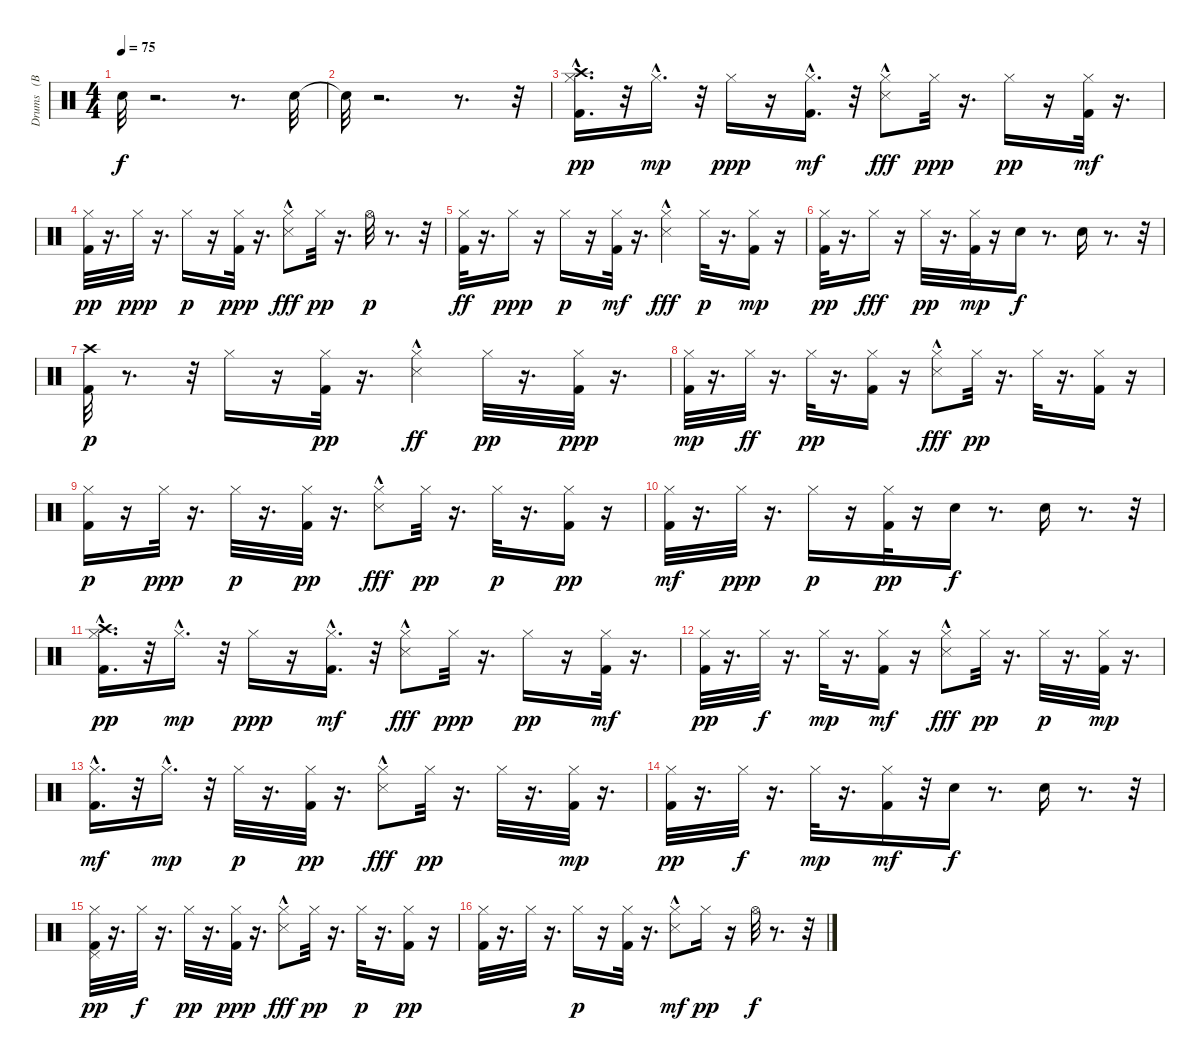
\track ("Drums   (BB)" "Drums   (B") {instrument percussion}
\staff {score}
\articulation defaults
\ts (4 4)
\tempo 75
\clef neutral
\ks c "Snare (hit)"{t}.32{dy f}
r.2{d} r.8{d} "Snare (hit) 2".32 |
"Snare (hit)"{t}.32 r.2{d} r.8{d} r.32 |
("Crash high (hit)"{hac} "Kick (hit) 2"{hac} "Hi-Hat (closed)").16{d dy pp} r.32 "Hi-Hat (closed)"{hac}.16{d dy mp} r.32 "Hi-Hat (closed)".16{dy ppp} r.16 ("Hi-Hat (closed)"{hac} "Kick (hit) 2").16{d dy mf} r.32 ("Snare (side stick) 3"{hac} "Hi-Hat (closed)").8{dy fff} "Hi-Hat (closed)".32{dy ppp} r.16{d} "Hi-Hat (closed)".16{dy pp} r.16 ("Hi-Hat (closed)" "Kick (hit) 2").32{dy mf} r.16{d} |
("Kick (hit) 2" "Hi-Hat (closed)").32{dy pp} r.16{d} "Hi-Hat (closed)".32{dy ppp} r.16{d} "Hi-Hat (closed)".16{dy p} r.16 ("Kick (hit) 2" "Hi-Hat (closed)").32{dy ppp} r.16{d} ("Snare (side stick) 3"{hac} "Hi-Hat (closed)").8{dy fff} "Hi-Hat (closed)".32{dy pp} r.16{d} "Hi-Hat (open)".32{dy p} r.8{d} r.32 |
("Hi-Hat (closed)" "Kick (hit) 2").32{dy ff} r.16{d} "Hi-Hat (closed)".16{dy ppp} r.16 "Hi-Hat (closed)".16{dy p} r.16 ("Hi-Hat (closed)" "Kick (hit) 2").32{dy mf} r.16{d} ("Snare (side stick) 3"{hac} "Hi-Hat (closed)").4{dy fff} "Hi-Hat (closed)".32{dy p} r.16{d} ("Hi-Hat (closed)" "Kick (hit) 2").16{dy mp} r.16 |
("Kick (hit) 2" "Hi-Hat (closed)").32{dy pp} r.16{d} "Hi-Hat (closed)".16{dy fff} r.16 "Hi-Hat (closed)".32{dy pp} r.16{d} ("Hi-Hat (closed)" "Kick (hit) 2").32{dy mp} r.16 "Snare (hit) 2".16{dy f} r.8{d} "Snare (hit) 2".16 r.8{d} r.32 |
("Kick (hit) 2" "Crash high (hit)").32{dy p} r.8{d} r.32 "Hi-Hat (closed)".16 r.16 ("Kick (hit) 2" "Hi-Hat (closed)").32{dy pp} r.16{d} ("Snare (side stick) 3"{hac} "Hi-Hat (closed)").4{dy ff} "Hi-Hat (closed)".32{dy pp} r.16{d} ("Kick (hit) 2" "Hi-Hat (closed)").32{dy ppp} r.16{d} |
("Hi-Hat (closed)" "Kick (hit) 2").32{dy mp} r.16{d} "Hi-Hat (closed)".32{dy ff} r.16{d} "Hi-Hat (closed)".32{dy pp} r.16{d} ("Kick (hit) 2" "Hi-Hat (closed)").16 r.16 ("Snare (side stick) 3"{hac} "Hi-Hat (closed)").8{dy fff} "Hi-Hat (closed)".32{dy pp} r.16{d} "Hi-Hat (closed)".32 r.16{d} ("Kick (hit) 2" "Hi-Hat (closed)").16 r.16 |
("Kick (hit) 2" "Hi-Hat (closed)").16{dy p} r.16 "Hi-Hat (closed)".32{dy ppp} r.16{d} "Hi-Hat (closed)".32{dy p} r.16{d} ("Kick (hit) 2" "Hi-Hat (closed)").32{dy pp} r.16{d} ("Snare (side stick) 3"{hac} "Hi-Hat (closed)").8{dy fff} "Hi-Hat (closed)".32{dy pp} r.16{d} "Hi-Hat (closed)".32{dy p} r.16{d} ("Kick (hit) 2" "Hi-Hat (closed)").16{dy pp} r.16 |
("Hi-Hat (closed)" "Kick (hit) 2").32{dy mf} r.16{d} "Hi-Hat (closed)".32{dy ppp} r.16{d} "Hi-Hat (closed)".16{dy p} r.16 ("Kick (hit) 2" "Hi-Hat (closed)").32{dy pp} r.16 "Snare (hit) 2".16{dy f} r.8{d} "Snare (hit) 2".16 r.8{d} r.32 |
("Crash high (hit)"{hac} "Kick (hit) 2"{hac} "Hi-Hat (closed)").16{d dy pp} r.32 "Hi-Hat (closed)"{hac}.16{d dy mp} r.32 "Hi-Hat (closed)".16{dy ppp} r.16 ("Hi-Hat (closed)"{hac} "Kick (hit) 2").16{d dy mf} r.32 ("Snare (side stick) 3"{hac} "Hi-Hat (closed)").8{dy fff} "Hi-Hat (closed)".32{dy ppp} r.16{d} "Hi-Hat (closed)".16{dy pp} r.16 ("Hi-Hat (closed)" "Kick (hit) 2").32{dy mf} r.16{d} |
("Hi-Hat (closed)" "Kick (hit) 2").32{dy pp} r.16{d} "Hi-Hat (closed)".32{dy f} r.16{d} "Hi-Hat (closed)".32{dy mp} r.16{d} ("Hi-Hat (closed)" "Kick (hit) 2").16{dy mf} r.16 ("Snare (side stick) 3"{hac} "Hi-Hat (closed)").8{dy fff} "Hi-Hat (closed)".32{dy pp} r.16{d} "Hi-Hat (closed)".32{dy p} r.16{d} ("Hi-Hat (closed)" "Kick (hit) 2").32{dy mp} r.16{d} |
("Hi-Hat (closed)"{hac} "Kick (hit) 2").16{d dy mf} r.32 "Hi-Hat (closed)"{hac}.16{d dy mp} r.32 "Hi-Hat (closed)".32{dy p} r.16{d} ("Kick (hit) 2" "Hi-Hat (closed)").32{dy pp} r.16{d} ("Snare (side stick) 3"{hac} "Hi-Hat (closed)").8{dy fff} "Hi-Hat (closed)".32{dy pp} r.16{d} "Hi-Hat (closed)".32 r.16{d} ("Hi-Hat (closed)" "Kick (hit) 2").32{dy mp} r.16{d} |
("Hi-Hat (closed)" "Kick (hit) 2").32{dy pp} r.16{d} "Hi-Hat (closed)".32{dy f} r.16{d} "Hi-Hat (closed)".32{dy mp} r.16{d} ("Hi-Hat (closed)" "Kick (hit) 2").16{dy mf} r.32 "Snare (hit) 2".16{dy f} r.8{d} "Snare (hit) 2".16 r.8{d} r.32 |
("Pedal Hi-Hat (hit)" "Kick (hit) 2" "Hi-Hat (closed)").32{dy pp} r.16{d} "Hi-Hat (closed)".32{dy f} r.16{d} "Hi-Hat (closed)".32{dy pp} r.16{d} ("Kick (hit) 2" "Hi-Hat (closed)").32{dy ppp} r.16{d} ("Snare (side stick) 3"{hac} "Hi-Hat (closed)").8{dy fff} "Hi-Hat (closed)".32{dy pp} r.16{d} "Hi-Hat (closed)".32{dy p} r.16{d} ("Kick (hit) 2" "Hi-Hat (closed)").16{dy pp} r.16 |
("Kick (hit) 2" "Hi-Hat (closed)").32 r.16{d} "Hi-Hat (closed)".32 r.16{d} "Hi-Hat (closed)".16{dy p} r.16 ("Hi-Hat (closed)" "Kick (hit) 2").32 r.16{d} ("Hi-Hat (closed)" "Snare (side stick) 3"{hac}).8{dy mf} "Hi-Hat (closed)".16{dy pp} r.16 "Hi-Hat (open)".32{dy f} r.8{d} r.32
